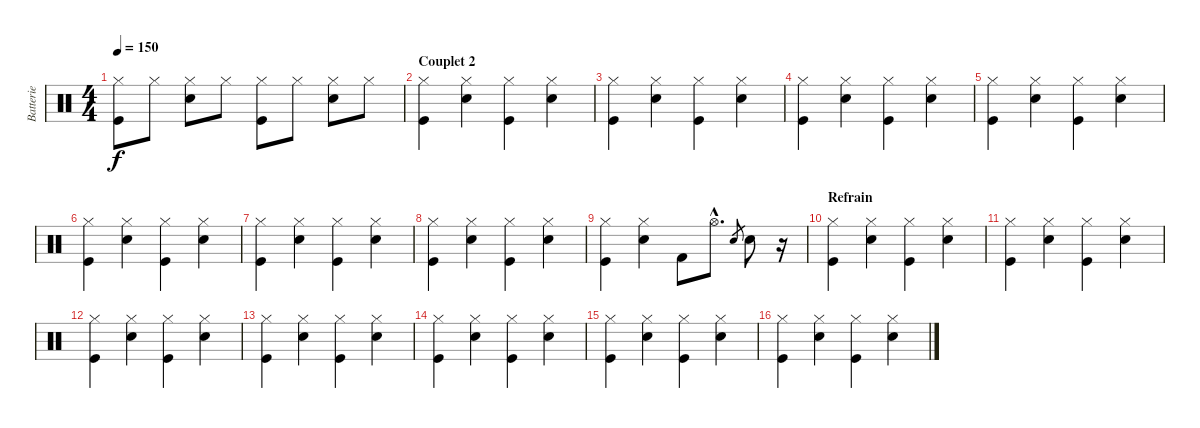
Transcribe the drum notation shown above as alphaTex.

\track ("Batterie" "Batterie") {instrument percussion}
\staff {score}
\articulation defaults
\ts (4 4)
\tempo 150
\clef neutral
\ks c
("Hi-Hat (closed)" "Kick (hit)").8{dy f} "Hi-Hat (closed)".8 ("Hi-Hat (closed)" "Electric Snare (hit)").8 "Hi-Hat (closed)".8 ("Hi-Hat (closed)" "Kick (hit)").8 "Hi-Hat (closed)".8 ("Hi-Hat (closed)" "Electric Snare (hit)").8 "Hi-Hat (closed)".8 |
\section ("" "Couplet 2")
("Hi-Hat (closed)" "Kick (hit)").4 ("Hi-Hat (closed)" "Electric Snare (hit)").4 ("Hi-Hat (closed)" "Kick (hit)").4 ("Hi-Hat (closed)" "Electric Snare (hit)").4 |
("Hi-Hat (closed)" "Kick (hit)").4 ("Hi-Hat (closed)" "Electric Snare (hit)").4 ("Hi-Hat (closed)" "Kick (hit)").4 ("Hi-Hat (closed)" "Electric Snare (hit)").4 |
("Hi-Hat (closed)" "Kick (hit)").4 ("Hi-Hat (closed)" "Electric Snare (hit)").4 ("Hi-Hat (closed)" "Kick (hit)").4 ("Hi-Hat (closed)" "Electric Snare (hit)").4 |
("Hi-Hat (closed)" "Kick (hit)").4 ("Hi-Hat (closed)" "Electric Snare (hit)").4 ("Hi-Hat (closed)" "Kick (hit)").4 ("Hi-Hat (closed)" "Electric Snare (hit)").4 |
("Hi-Hat (closed)" "Kick (hit)").4 ("Hi-Hat (closed)" "Electric Snare (hit)").4 ("Hi-Hat (closed)" "Kick (hit)").4 ("Hi-Hat (closed)" "Electric Snare (hit)").4 |
("Hi-Hat (closed)" "Kick (hit)").4 ("Hi-Hat (closed)" "Electric Snare (hit)").4 ("Hi-Hat (closed)" "Kick (hit)").4 ("Hi-Hat (closed)" "Electric Snare (hit)").4 |
("Hi-Hat (closed)" "Kick (hit)").4 ("Hi-Hat (closed)" "Electric Snare (hit)").4 ("Hi-Hat (closed)" "Kick (hit)").4 ("Hi-Hat (closed)" "Electric Snare (hit)").4 |
("Hi-Hat (closed)" "Kick (hit)").4 ("Hi-Hat (closed)" "Electric Snare (hit)").4 "Kick (hit) 2".8 "Hi-Hat (open)"{hac}.8{d} "Electric Snare (hit)".8{gr} "Electric Snare (hit)".8 r.16 |
\section ("" "Refrain")
("Hi-Hat (closed)" "Kick (hit)").4 ("Hi-Hat (closed)" "Electric Snare (hit)").4 ("Hi-Hat (closed)" "Kick (hit)").4 ("Hi-Hat (closed)" "Electric Snare (hit)").4 |
("Hi-Hat (closed)" "Kick (hit)").4 ("Hi-Hat (closed)" "Electric Snare (hit)").4 ("Hi-Hat (closed)" "Kick (hit)").4 ("Hi-Hat (closed)" "Electric Snare (hit)").4 |
("Hi-Hat (closed)" "Kick (hit)").4 ("Hi-Hat (closed)" "Electric Snare (hit)").4 ("Hi-Hat (closed)" "Kick (hit)").4 ("Hi-Hat (closed)" "Electric Snare (hit)").4 |
("Hi-Hat (closed)" "Kick (hit)").4 ("Hi-Hat (closed)" "Electric Snare (hit)").4 ("Hi-Hat (closed)" "Kick (hit)").4 ("Hi-Hat (closed)" "Electric Snare (hit)").4 |
("Hi-Hat (closed)" "Kick (hit)").4 ("Hi-Hat (closed)" "Electric Snare (hit)").4 ("Hi-Hat (closed)" "Kick (hit)").4 ("Hi-Hat (closed)" "Electric Snare (hit)").4 |
("Hi-Hat (closed)" "Kick (hit)").4 ("Hi-Hat (closed)" "Electric Snare (hit)").4 ("Hi-Hat (closed)" "Kick (hit)").4 ("Hi-Hat (closed)" "Electric Snare (hit)").4 |
("Hi-Hat (closed)" "Kick (hit)").4 ("Hi-Hat (closed)" "Electric Snare (hit)").4 ("Hi-Hat (closed)" "Kick (hit)").4 ("Hi-Hat (closed)" "Electric Snare (hit)").4
